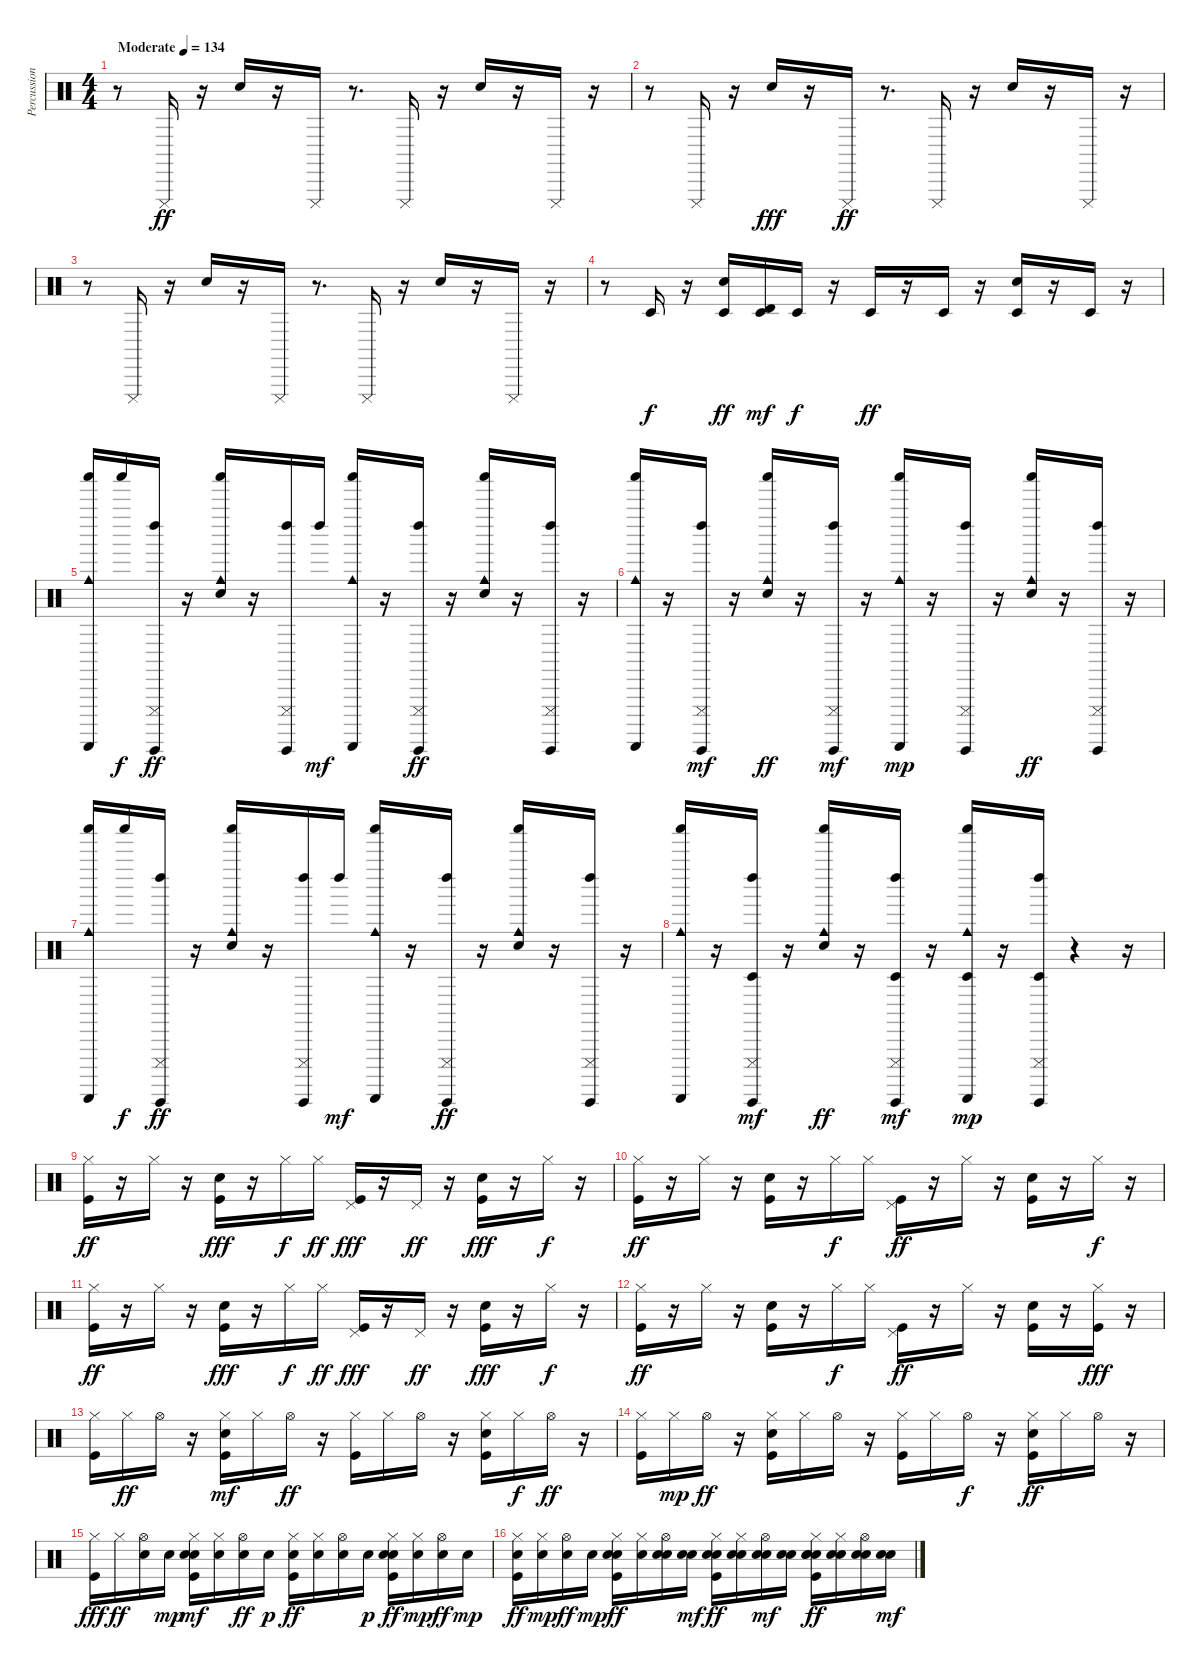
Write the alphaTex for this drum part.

\track ("Percussion" "Percussion") {instrument percussion}
\staff {score}
\articulation defaults
\ts (4 4)
\tempo (134 "Moderate")
\clef neutral
\ks c
r.8{dy ff} "Cuica (mute)".16 r.16 "Hand Clap (hit)".16 r.16 "Cuica (mute)".16 r.8{d} "Cuica (mute)".16 r.16 "Hand Clap (hit)".16 r.16 "Cuica (mute)".16 r.16 |
r.8 "Cuica (mute)".16 r.16 "Hand Clap (hit)".16{dy fff} r.16 "Cuica (mute)".16{dy ff} r.8{d} "Cuica (mute)".16 r.16 "Hand Clap (hit)".16 r.16 "Cuica (mute)".16 r.16 |
r.8 "Cuica (mute)".16 r.16 "Hand Clap (hit)".16 r.16 "Cuica (mute)".16 r.8{d} "Cuica (mute)".16 r.16 "Hand Clap (hit)".16 r.16 "Cuica (mute)".16 r.16 |
r.8 "Timbale low (hit)".16{dy f} r.16 ("Hand Clap (hit)" "Timbale low (hit)").16{dy ff} ("Timbale high (hit)" "Timbale low (hit)").16{dy mf} "Timbale low (hit)".16{dy f} r.16 "Timbale low (hit)".16{dy ff} r.16 "Timbale low (hit)".16 r.16 ("Hand Clap (hit)" "Timbale low (hit)").16 r.16 "Timbale low (hit)".16 r.16 |
("Cowbell medium (hit)" "Guiro (scrap-return)" "Shaker (hit)").16 "Shaker (hit)".16{dy f} ("Left Maraca (hit)" "Guiro (hit)" "Cuica (mute)").16{dy ff} r.16 ("Hand Clap (hit)" "Cowbell medium (hit)" "Shaker (hit)").16 r.16 ("Left Maraca (hit)" "Guiro (hit)" "Cuica (mute)").16 "Left Maraca (hit)".16{dy mf} ("Cowbell medium (hit)" "Guiro (scrap-return)" "Shaker (hit)").16 r.16 ("Left Maraca (hit)" "Guiro (hit)" "Cuica (mute)").16{dy ff} r.16 ("Hand Clap (hit)" "Cowbell medium (hit)" "Shaker (hit)").16 r.16 ("Left Maraca (hit)" "Guiro (hit)" "Cuica (mute)").16 r.16 |
("Cowbell medium (hit)" "Guiro (scrap-return)" "Shaker (hit)").16 r.16 ("Left Maraca (hit)" "Guiro (hit)" "Cuica (mute)").16{dy mf} r.16 ("Hand Clap (hit)" "Cowbell medium (hit)" "Shaker (hit)").16{dy ff} r.16 ("Left Maraca (hit)" "Guiro (hit)" "Cuica (mute)").16{dy mf} r.16 ("Cowbell medium (hit)" "Guiro (scrap-return)" "Shaker (hit)").16{dy mp} r.16 ("Left Maraca (hit)" "Guiro (hit)" "Cuica (mute)").16 r.16 ("Hand Clap (hit)" "Cowbell medium (hit)" "Shaker (hit)").16{dy ff} r.16 ("Left Maraca (hit)" "Guiro (hit)" "Cuica (mute)").16 r.16 |
("Cowbell medium (hit)" "Guiro (scrap-return)" "Shaker (hit)").16 "Shaker (hit)".16{dy f} ("Left Maraca (hit)" "Guiro (hit)" "Cuica (mute)").16{dy ff} r.16 ("Hand Clap (hit)" "Cowbell medium (hit)" "Shaker (hit)").16 r.16 ("Left Maraca (hit)" "Guiro (hit)" "Cuica (mute)").16 "Left Maraca (hit)".16{dy mf} ("Cowbell medium (hit)" "Guiro (scrap-return)" "Shaker (hit)").16 r.16 ("Left Maraca (hit)" "Guiro (hit)" "Cuica (mute)").16{dy ff} r.16 ("Hand Clap (hit)" "Cowbell medium (hit)" "Shaker (hit)").16 r.16 ("Left Maraca (hit)" "Guiro (hit)" "Cuica (mute)").16 r.16 |
("Cowbell medium (hit)" "Guiro (scrap-return)" "Shaker (hit)").16 r.16 ("Timbale low (hit)" "Left Maraca (hit)" "Guiro (hit)" "Cuica (mute)").16{dy mf} r.16 ("Hand Clap (hit)" "Cowbell medium (hit)" "Shaker (hit)").16{dy ff} r.16 ("Timbale low (hit)" "Left Maraca (hit)" "Guiro (hit)" "Cuica (mute)").16{dy mf} r.16 ("Cowbell medium (hit)" "Timbale low (hit)" "Guiro (scrap-return)" "Shaker (hit)").16{dy mp} r.16 ("Timbale low (hit)" "Left Maraca (hit)" "Guiro (hit)" "Cuica (mute)").16 r.4 r.16 |
("Kick (hit)" "Hi-Hat (closed)").16{dy ff} r.16 "Hi-Hat (closed)".16 r.16 ("Kick (hit)" "Hand Clap (hit)").16{dy fff} r.16 "Hi-Hat (closed)".16{dy f} "Hi-Hat (closed)".16{dy ff} ("Kick (hit)" "Pedal Hi-Hat (hit)").16{dy fff} r.16 "Pedal Hi-Hat (hit)".16{dy ff} r.16 ("Kick (hit)" "Hand Clap (hit)").16{dy fff} r.16 "Hi-Hat (closed)".16{dy f} r.16 |
("Kick (hit)" "Hi-Hat (closed)").16{dy ff} r.16 "Hi-Hat (closed)".16 r.16 ("Kick (hit)" "Hand Clap (hit)").16 r.16 "Hi-Hat (closed)".16{dy f} "Hi-Hat (closed)".16 ("Kick (hit)" "Pedal Hi-Hat (hit)").16{dy ff} r.16 "Hi-Hat (closed)".16 r.16 ("Kick (hit)" "Hand Clap (hit)").16 r.16 "Hi-Hat (closed)".16{dy f} r.16 |
("Kick (hit)" "Hi-Hat (closed)").16{dy ff} r.16 "Hi-Hat (closed)".16 r.16 ("Kick (hit)" "Hand Clap (hit)").16{dy fff} r.16 "Hi-Hat (closed)".16{dy f} "Hi-Hat (closed)".16{dy ff} ("Kick (hit)" "Pedal Hi-Hat (hit)").16{dy fff} r.16 "Pedal Hi-Hat (hit)".16{dy ff} r.16 ("Kick (hit)" "Hand Clap (hit)").16{dy fff} r.16 "Hi-Hat (closed)".16{dy f} r.16 |
("Kick (hit)" "Hi-Hat (closed)").16{dy ff} r.16 "Hi-Hat (closed)".16 r.16 ("Kick (hit)" "Hand Clap (hit)").16 r.16 "Hi-Hat (closed)".16{dy f} "Hi-Hat (closed)".16 ("Kick (hit)" "Pedal Hi-Hat (hit)").16{dy ff} r.16 "Hi-Hat (closed)".16 r.16 ("Kick (hit)" "Hand Clap (hit)").16 r.16 ("Kick (hit)" "Hi-Hat (closed)").16{dy fff} r.16 |
("Kick (hit)" "Hi-Hat (closed)").16 "Hi-Hat (closed)".16{dy ff} "Hi-Hat (open)".16 r.16 ("Kick (hit)" "Hand Clap (hit)" "Hi-Hat (closed)").16{dy mf} "Hi-Hat (closed)".16 "Hi-Hat (open)".16{dy ff} r.16 ("Kick (hit)" "Hi-Hat (closed)").16 "Hi-Hat (closed)".16 "Hi-Hat (open)".16 r.16 ("Kick (hit)" "Hand Clap (hit)" "Hi-Hat (closed)").16 "Hi-Hat (closed)".16{dy f} "Hi-Hat (open)".16{dy ff} r.16 |
("Kick (hit)" "Hi-Hat (closed)").16 "Hi-Hat (closed)".16{dy mp} "Hi-Hat (open)".16{dy ff} r.16 ("Kick (hit)" "Hand Clap (hit)" "Hi-Hat (closed)").16 "Hi-Hat (closed)".16 "Hi-Hat (open)".16 r.16 ("Kick (hit)" "Hi-Hat (closed)").16 "Hi-Hat (closed)".16 "Hi-Hat (open)".16{dy f} r.16 ("Kick (hit)" "Hand Clap (hit)" "Hi-Hat (closed)").16{dy ff} "Hi-Hat (closed)".16 "Hi-Hat (open)".16 r.16 |
("Kick (hit)" "Hi-Hat (closed)").16{dy fff} "Hi-Hat (closed)".16{dy ff} ("Electric Snare (hit)" "Hi-Hat (open)").16 "Electric Snare (hit)".16{dy mp} ("Kick (hit)" "Hand Clap (hit)" "Electric Snare (hit)" "Hi-Hat (closed)").16{dy mf} ("Electric Snare (hit)" "Hi-Hat (closed)").16 ("Electric Snare (hit)" "Hi-Hat (open)").16{dy ff} "Electric Snare (hit)".16{dy p} ("Kick (hit)" "Electric Snare (hit)" "Hi-Hat (closed)").16{dy ff} ("Electric Snare (hit)" "Hi-Hat (closed)").16 ("Electric Snare (hit)" "Hi-Hat (open)").16 "Electric Snare (hit)".16{dy p} ("Kick (hit)" "Hand Clap (hit)" "Electric Snare (hit)" "Hi-Hat (closed)").16{dy ff} ("Electric Snare (hit)" "Hi-Hat (closed)").16{dy mp} ("Electric Snare (hit)" "Hi-Hat (open)").16{dy ff} "Electric Snare (hit)".16{dy mp} |
("Kick (hit)" "Electric Snare (hit)" "Hi-Hat (closed)").16{dy ff} ("Electric Snare (hit)" "Hi-Hat (closed)").16{dy mp} ("Electric Snare (hit)" "Hi-Hat (open)").16{dy ff} "Electric Snare (hit)".16{dy mp} ("Kick (hit)" "Hand Clap (hit)" "Electric Snare (hit)" "Hi-Hat (closed)").16{dy ff} ("Electric Snare (hit)" "Hi-Hat (closed)").16 ("Electric Snare (hit)" "Electric Snare (hit)" "Hi-Hat (open)").16 ("Electric Snare (hit)" "Electric Snare (hit)").16{dy mf} ("Electric Snare (hit)" "Kick (hit)" "Electric Snare (hit)" "Hi-Hat (closed)").16{dy ff} ("Electric Snare (hit)" "Electric Snare (hit)" "Hi-Hat (closed)").16 ("Electric Snare (hit)" "Electric Snare (hit)" "Hi-Hat (open)").16{dy mf} ("Electric Snare (hit)" "Electric Snare (hit)").16 ("Electric Snare (hit)" "Kick (hit)" "Hand Clap (hit)" "Electric Snare (hit)" "Hi-Hat (closed)").16{dy ff} ("Electric Snare (hit)" "Electric Snare (hit)" "Hi-Hat (closed)").16 ("Electric Snare (hit)" "Electric Snare (hit)" "Hi-Hat (open)").16 ("Electric Snare (hit)" "Electric Snare (hit)").16{dy mf}
